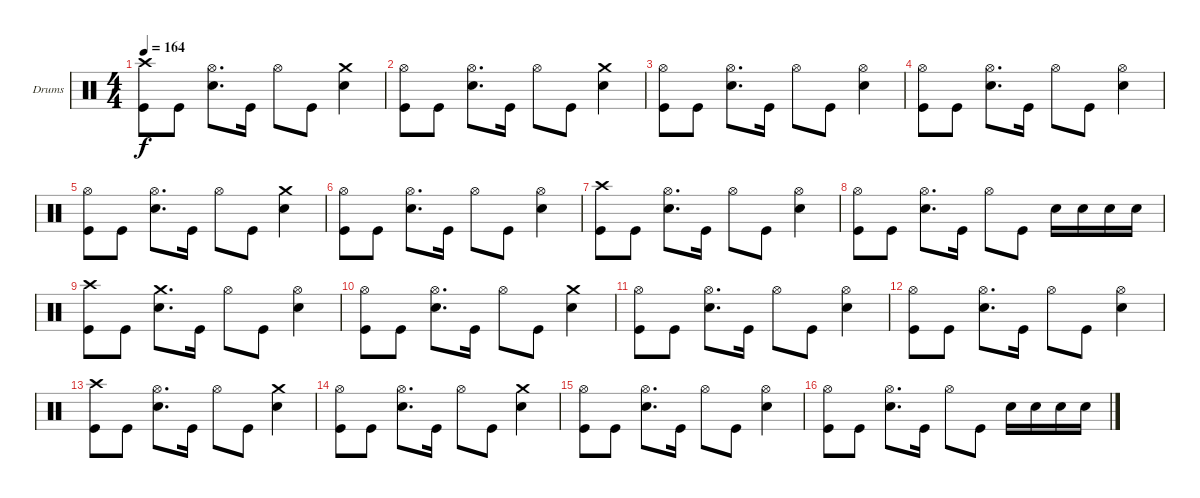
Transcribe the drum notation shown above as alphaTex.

\defaultSystemsLayout 4
\bracketExtendMode groupsimilarinstruments
\firstSystemTrackNameOrientation horizontal
\otherSystemsTrackNameOrientation horizontal
\track ("Drumkit" "Drums") {instrument percussion}
\staff {score}
\articulation defaults
\ts (4 4)
\tempo 164
\clef neutral
\ks c
("Kick (hit)" "Crash high (hit)").8{dy f} "Kick (hit)".8 ("Snare (hit) 2" "Hi-Hat (open)").8{d} "Kick (hit)".16 "Hi-Hat (open)".8 "Kick (hit)".8 ("Snare (hit) 2" "Crash medium (hit)").4 |
("Kick (hit)" "Hi-Hat (open)").8 "Kick (hit)".8 ("Snare (hit) 2" "Hi-Hat (open)").8{d} "Kick (hit)".16 "Hi-Hat (open)".8 "Kick (hit)".8 ("Snare (hit) 2" "Crash medium (hit)").4 |
("Kick (hit)" "Hi-Hat (open)").8 "Kick (hit)".8 ("Snare (hit) 2" "Hi-Hat (open)").8{d} "Kick (hit)".16 "Hi-Hat (open)".8 "Kick (hit)".8 ("Snare (hit) 2" "Hi-Hat (open)").4 |
("Kick (hit)" "Hi-Hat (open)").8 "Kick (hit)".8 ("Snare (hit) 2" "Hi-Hat (open)").8{d} "Kick (hit)".16 "Hi-Hat (open)".8 "Kick (hit)".8 ("Snare (hit) 2" "Hi-Hat (open)").4 |
("Kick (hit)" "Hi-Hat (open)").8 "Kick (hit)".8 ("Snare (hit) 2" "Hi-Hat (open)").8{d} "Kick (hit)".16 "Hi-Hat (open)".8 "Kick (hit)".8 ("Snare (hit) 2" "Crash medium (hit)").4 |
("Kick (hit)" "Hi-Hat (open)").8 "Kick (hit)".8 ("Snare (hit) 2" "Hi-Hat (open)").8{d} "Kick (hit)".16 "Hi-Hat (open)".8 "Kick (hit)".8 ("Snare (hit) 2" "Hi-Hat (open)").4 |
("Kick (hit)" "Crash high (hit)").8 "Kick (hit)".8 ("Snare (hit) 2" "Hi-Hat (open)").8{d} "Kick (hit)".16 "Hi-Hat (open)".8 "Kick (hit)".8 ("Snare (hit) 2" "Hi-Hat (open)").4 |
("Kick (hit)" "Hi-Hat (open)").8 "Kick (hit)".8 ("Snare (hit) 2" "Hi-Hat (open)").8{d} "Kick (hit)".16 "Hi-Hat (open)".8 "Kick (hit)".8 "Snare (hit) 2".16 "Snare (hit) 2".16 "Snare (hit) 2".16 "Snare (hit) 2".16 |
("Kick (hit)" "Crash high (hit)").8 "Kick (hit)".8 ("Snare (hit) 2" "Crash medium (hit)").8{d} "Kick (hit)".16 "Hi-Hat (open)".8 "Kick (hit)".8 ("Snare (hit) 2" "Hi-Hat (open)").4 |
("Kick (hit)" "Hi-Hat (open)").8 "Kick (hit)".8 ("Snare (hit) 2" "Hi-Hat (open)").8{d} "Kick (hit)".16 "Hi-Hat (open)".8 "Kick (hit)".8 ("Snare (hit) 2" "Crash medium (hit)").4 |
("Kick (hit)" "Hi-Hat (open)").8 "Kick (hit)".8 ("Snare (hit) 2" "Hi-Hat (open)").8{d} "Kick (hit)".16 "Hi-Hat (open)".8 "Kick (hit)".8 ("Snare (hit) 2" "Hi-Hat (open)").4 |
("Kick (hit)" "Hi-Hat (open)").8 "Kick (hit)".8 ("Snare (hit) 2" "Hi-Hat (open)").8{d} "Kick (hit)".16 "Hi-Hat (open)".8 "Kick (hit)".8 ("Snare (hit) 2" "Hi-Hat (open)").4 |
("Kick (hit)" "Crash high (hit)").8 "Kick (hit)".8 ("Snare (hit) 2" "Hi-Hat (open)").8{d} "Kick (hit)".16 "Hi-Hat (open)".8 "Kick (hit)".8 ("Snare (hit) 2" "Crash medium (hit)").4 |
("Kick (hit)" "Hi-Hat (open)").8 "Kick (hit)".8 ("Snare (hit) 2" "Hi-Hat (open)").8{d} "Kick (hit)".16 "Hi-Hat (open)".8 "Kick (hit)".8 ("Snare (hit) 2" "Crash medium (hit)").4 |
("Kick (hit)" "Hi-Hat (open)").8 "Kick (hit)".8 ("Snare (hit) 2" "Hi-Hat (open)").8{d} "Kick (hit)".16 "Hi-Hat (open)".8 "Kick (hit)".8 ("Snare (hit) 2" "Hi-Hat (open)").4 |
("Kick (hit)" "Hi-Hat (open)").8 "Kick (hit)".8 ("Snare (hit) 2" "Hi-Hat (open)").8{d} "Kick (hit)".16 "Hi-Hat (open)".8 "Kick (hit)".8 "Snare (hit) 2".16 "Snare (hit) 2".16 "Snare (hit) 2".16 "Snare (hit) 2".16
